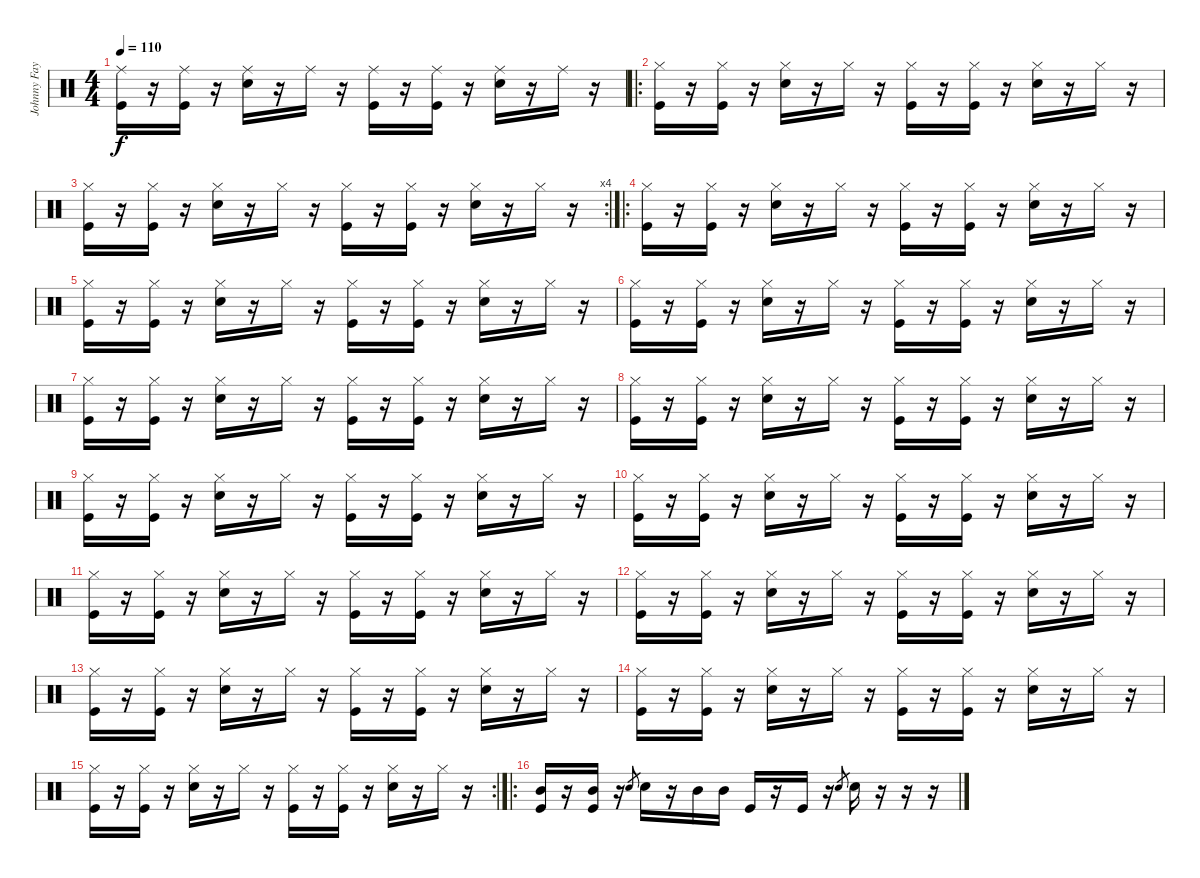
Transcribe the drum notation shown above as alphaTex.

\track ("Johnny Fay" "Johnny Fay") {instrument percussion}
\staff {score}
\articulation defaults
\ts (4 4)
\tempo 110
\clef neutral
\ks c
("Kick (hit)" "Ride (middle)").16{dy f} r.16 ("Kick (hit)" "Ride (middle)").16 r.16 ("Snare (hit) 2" "Ride (middle)").16 r.16 "Ride (middle)".16 r.16 ("Kick (hit)" "Ride (middle)").16 r.16 ("Kick (hit)" "Ride (middle)").16 r.16 ("Snare (hit) 2" "Ride (middle)").16 r.16 "Ride (middle)".16 r.16 |
\ro
("Kick (hit)" "Hi-Hat (closed)").16 r.16 ("Kick (hit)" "Hi-Hat (closed)").16 r.16 ("Snare (hit) 2" "Hi-Hat (closed)").16 r.16 "Hi-Hat (closed)".16 r.16 ("Kick (hit)" "Hi-Hat (closed)").16 r.16 ("Kick (hit)" "Hi-Hat (closed)").16 r.16 ("Snare (hit) 2" "Hi-Hat (closed)").16 r.16 "Hi-Hat (closed)".16 r.16 |
\rc 4
("Kick (hit)" "Hi-Hat (closed)").16 r.16 ("Kick (hit)" "Hi-Hat (closed)").16 r.16 ("Snare (hit) 2" "Hi-Hat (closed)").16 r.16 "Hi-Hat (closed)".16 r.16 ("Kick (hit)" "Hi-Hat (closed)").16 r.16 ("Kick (hit)" "Hi-Hat (closed)").16 r.16 ("Snare (hit) 2" "Hi-Hat (closed)").16 r.16 "Hi-Hat (closed)".16 r.16 |
\ro
("Kick (hit)" "Hi-Hat (closed)").16 r.16 ("Kick (hit)" "Hi-Hat (closed)").16 r.16 ("Snare (hit) 2" "Hi-Hat (closed)").16 r.16 "Hi-Hat (closed)".16 r.16 ("Kick (hit)" "Hi-Hat (closed)").16 r.16 ("Kick (hit)" "Hi-Hat (closed)").16 r.16 ("Snare (hit) 2" "Hi-Hat (closed)").16 r.16 "Hi-Hat (closed)".16 r.16 |
("Kick (hit)" "Hi-Hat (closed)").16 r.16 ("Kick (hit)" "Hi-Hat (closed)").16 r.16 ("Snare (hit) 2" "Hi-Hat (closed)").16 r.16 "Hi-Hat (closed)".16 r.16 ("Kick (hit)" "Hi-Hat (closed)").16 r.16 ("Kick (hit)" "Hi-Hat (closed)").16 r.16 ("Snare (hit) 2" "Hi-Hat (closed)").16 r.16 "Hi-Hat (closed)".16 r.16 |
("Kick (hit)" "Hi-Hat (closed)").16 r.16 ("Kick (hit)" "Hi-Hat (closed)").16 r.16 ("Snare (hit) 2" "Hi-Hat (closed)").16 r.16 "Hi-Hat (closed)".16 r.16 ("Kick (hit)" "Hi-Hat (closed)").16 r.16 ("Kick (hit)" "Hi-Hat (closed)").16 r.16 ("Snare (hit) 2" "Hi-Hat (closed)").16 r.16 "Hi-Hat (closed)".16 r.16 |
("Kick (hit)" "Hi-Hat (closed)").16 r.16 ("Kick (hit)" "Hi-Hat (closed)").16 r.16 ("Snare (hit) 2" "Hi-Hat (closed)").16 r.16 "Hi-Hat (closed)".16 r.16 ("Kick (hit)" "Hi-Hat (closed)").16 r.16 ("Kick (hit)" "Hi-Hat (closed)").16 r.16 ("Snare (hit) 2" "Hi-Hat (closed)").16 r.16 "Hi-Hat (closed)".16 r.16 |
("Kick (hit)" "Hi-Hat (closed)").16 r.16 ("Kick (hit)" "Hi-Hat (closed)").16 r.16 ("Snare (hit) 2" "Hi-Hat (closed)").16 r.16 "Hi-Hat (closed)".16 r.16 ("Kick (hit)" "Hi-Hat (closed)").16 r.16 ("Kick (hit)" "Hi-Hat (closed)").16 r.16 ("Snare (hit) 2" "Hi-Hat (closed)").16 r.16 "Hi-Hat (closed)".16 r.16 |
("Kick (hit)" "Hi-Hat (closed)").16 r.16 ("Kick (hit)" "Hi-Hat (closed)").16 r.16 ("Snare (hit) 2" "Hi-Hat (closed)").16 r.16 "Hi-Hat (closed)".16 r.16 ("Kick (hit)" "Hi-Hat (closed)").16 r.16 ("Kick (hit)" "Hi-Hat (closed)").16 r.16 ("Snare (hit) 2" "Hi-Hat (closed)").16 r.16 "Hi-Hat (closed)".16 r.16 |
("Kick (hit)" "Hi-Hat (closed)").16 r.16 ("Kick (hit)" "Hi-Hat (closed)").16 r.16 ("Snare (hit) 2" "Hi-Hat (closed)").16 r.16 "Hi-Hat (closed)".16 r.16 ("Kick (hit)" "Hi-Hat (closed)").16 r.16 ("Kick (hit)" "Hi-Hat (closed)").16 r.16 ("Snare (hit) 2" "Hi-Hat (closed)").16 r.16 "Hi-Hat (closed)".16 r.16 |
("Kick (hit)" "Hi-Hat (closed)").16 r.16 ("Kick (hit)" "Hi-Hat (closed)").16 r.16 ("Snare (hit) 2" "Hi-Hat (closed)").16 r.16 "Hi-Hat (closed)".16 r.16 ("Kick (hit)" "Hi-Hat (closed)").16 r.16 ("Kick (hit)" "Hi-Hat (closed)").16 r.16 ("Snare (hit) 2" "Hi-Hat (closed)").16 r.16 "Hi-Hat (closed)".16 r.16 |
("Kick (hit)" "Hi-Hat (closed)").16 r.16 ("Kick (hit)" "Hi-Hat (closed)").16 r.16 ("Snare (hit) 2" "Hi-Hat (closed)").16 r.16 "Hi-Hat (closed)".16 r.16 ("Kick (hit)" "Hi-Hat (closed)").16 r.16 ("Kick (hit)" "Hi-Hat (closed)").16 r.16 ("Snare (hit) 2" "Hi-Hat (closed)").16 r.16 "Hi-Hat (closed)".16 r.16 |
("Kick (hit)" "Hi-Hat (closed)").16 r.16 ("Kick (hit)" "Hi-Hat (closed)").16 r.16 ("Snare (hit) 2" "Hi-Hat (closed)").16 r.16 "Hi-Hat (closed)".16 r.16 ("Kick (hit)" "Hi-Hat (closed)").16 r.16 ("Kick (hit)" "Hi-Hat (closed)").16 r.16 ("Snare (hit) 2" "Hi-Hat (closed)").16 r.16 "Hi-Hat (closed)".16 r.16 |
("Kick (hit)" "Hi-Hat (closed)").16 r.16 ("Kick (hit)" "Hi-Hat (closed)").16 r.16 ("Snare (hit) 2" "Hi-Hat (closed)").16 r.16 "Hi-Hat (closed)".16 r.16 ("Kick (hit)" "Hi-Hat (closed)").16 r.16 ("Kick (hit)" "Hi-Hat (closed)").16 r.16 ("Snare (hit) 2" "Hi-Hat (closed)").16 r.16 "Hi-Hat (closed)".16 r.16 |
\rc 2
("Kick (hit)" "Hi-Hat (closed)").16 r.16 ("Kick (hit)" "Hi-Hat (closed)").16 r.16 ("Snare (hit) 2" "Hi-Hat (closed)").16 r.16 "Hi-Hat (closed)".16 r.16 ("Kick (hit)" "Hi-Hat (closed)").16 r.16 ("Kick (hit)" "Hi-Hat (closed)").16 r.16 ("Snare (hit) 2" "Hi-Hat (closed)").16 r.16 "Hi-Hat (closed)".16 r.16 |
\ro
("Kick (hit)" "Mid Tom (hit)").16 r.16 ("Kick (hit)" "Mid Tom (hit)").16 r.16 "Snare (hit) 2".8{gr} "Snare (hit) 2".16 r.16 "Mid Tom (hit)".16 "Mid Tom (hit)".16 "Kick (hit)".16 r.16 "Kick (hit)".16 r.16 "Snare (hit) 2".8{gr} "Snare (hit) 2".16 r.16 r.16 r.16
